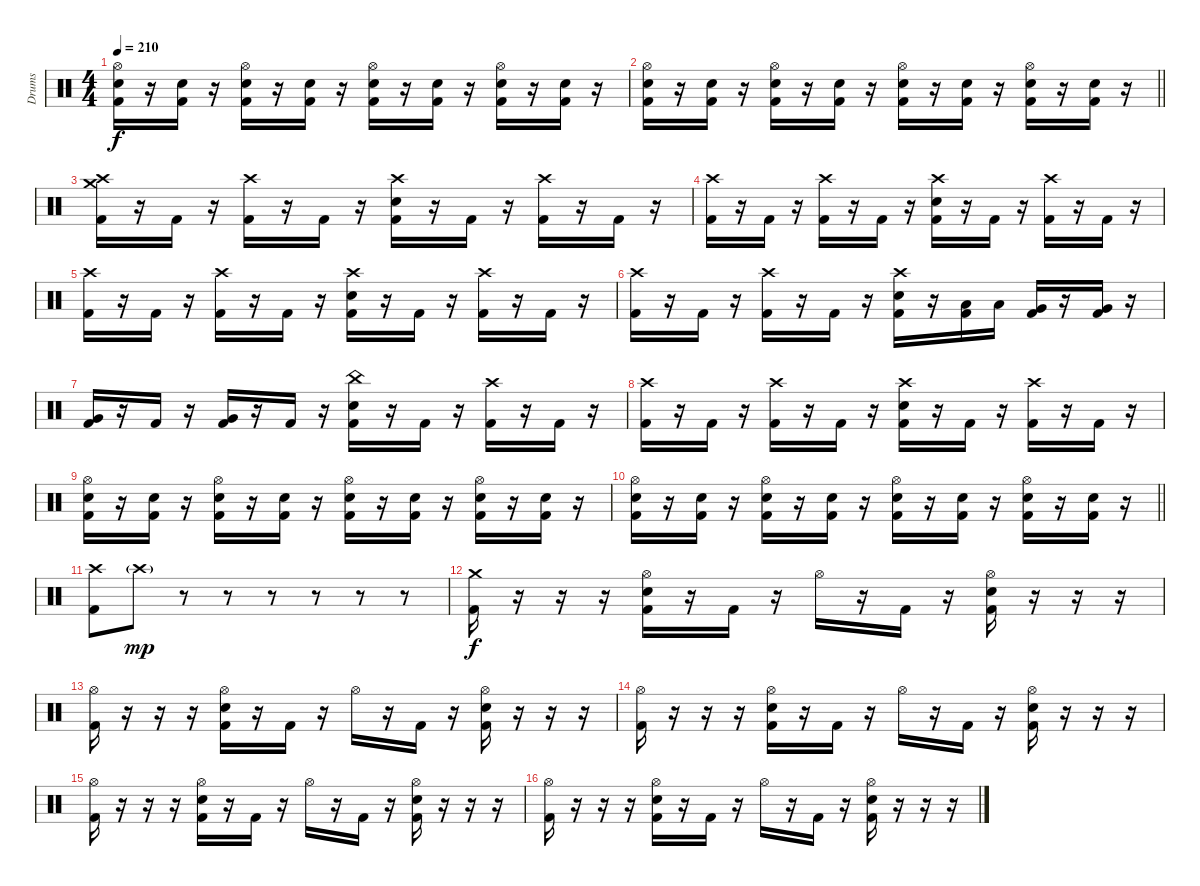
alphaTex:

\track ("Drums" "Drums") {instrument percussion}
\staff {score}
\articulation defaults
\ts (4 4)
\tempo 210
\clef neutral
\ks c
("Hi-Hat (open)" "Electric Snare (hit)" "Kick (hit) 2").16{dy f} r.16 ("Electric Snare (hit)" "Kick (hit) 2").16 r.16 ("Hi-Hat (open)" "Electric Snare (hit)" "Kick (hit) 2").16 r.16 ("Electric Snare (hit)" "Kick (hit) 2").16 r.16 ("Hi-Hat (open)" "Electric Snare (hit)" "Kick (hit) 2").16 r.16 ("Electric Snare (hit)" "Kick (hit) 2").16 r.16 ("Hi-Hat (open)" "Electric Snare (hit)" "Kick (hit) 2").16 r.16 ("Electric Snare (hit)" "Kick (hit) 2").16 r.16 |
\barLineRight lightlight
("Hi-Hat (open)" "Electric Snare (hit)" "Kick (hit) 2").16 r.16 ("Electric Snare (hit)" "Kick (hit) 2").16 r.16 ("Hi-Hat (open)" "Electric Snare (hit)" "Kick (hit) 2").16 r.16 ("Electric Snare (hit)" "Kick (hit) 2").16 r.16 ("Hi-Hat (open)" "Electric Snare (hit)" "Kick (hit) 2").16 r.16 ("Electric Snare (hit)" "Kick (hit) 2").16 r.16 ("Hi-Hat (open)" "Electric Snare (hit)" "Kick (hit) 2").16 r.16 ("Electric Snare (hit)" "Kick (hit) 2").16 r.16 |
("Crash high (hit)" "Crash medium (hit)" "Kick (hit) 2").16 r.16 "Kick (hit) 2".16 r.16 ("Crash high (hit)" "Kick (hit) 2").16 r.16 "Kick (hit) 2".16 r.16 ("Crash high (hit)" "Electric Snare (hit)" "Kick (hit) 2").16 r.16 "Kick (hit) 2".16 r.16 ("Crash high (hit)" "Kick (hit) 2").16 r.16 "Kick (hit) 2".16 r.16 |
("Crash high (hit)" "Kick (hit) 2").16 r.16 "Kick (hit) 2".16 r.16 ("Crash high (hit)" "Kick (hit) 2").16 r.16 "Kick (hit) 2".16 r.16 ("Crash high (hit)" "Electric Snare (hit)" "Kick (hit) 2").16 r.16 "Kick (hit) 2".16 r.16 ("Crash high (hit)" "Kick (hit) 2").16 r.16 "Kick (hit) 2".16 r.16 |
("Crash high (hit)" "Kick (hit) 2").16 r.16 "Kick (hit) 2".16 r.16 ("Crash high (hit)" "Kick (hit) 2").16 r.16 "Kick (hit) 2".16 r.16 ("Crash high (hit)" "Electric Snare (hit)" "Kick (hit) 2").16 r.16 "Kick (hit) 2".16 r.16 ("Crash high (hit)" "Kick (hit) 2").16 r.16 "Kick (hit) 2".16 r.16 |
("Crash high (hit)" "Kick (hit) 2").16 r.16 "Kick (hit) 2".16 r.16 ("Crash high (hit)" "Kick (hit) 2").16 r.16 "Kick (hit) 2".16 r.16 ("Crash high (hit)" "Electric Snare (hit)" "Kick (hit) 2").16 r.16 ("Low Tom (hit)" "Kick (hit) 2").16 "Low Tom (hit)".16 ("Very Low Tom (hit)" "Kick (hit) 2").16 r.16 ("Very Low Tom (hit)" "Kick (hit) 2").16 r.16 |
("Very Low Tom (hit)" "Kick (hit) 2").16 r.16 "Kick (hit) 2".16 r.16 ("Very Low Tom (hit)" "Kick (hit) 2").16 r.16 "Kick (hit) 2".16 r.16 ("China (hit)" "Electric Snare (hit)" "Kick (hit) 2").16 r.16 "Kick (hit) 2".16 r.16 ("Crash high (hit)" "Kick (hit) 2").16 r.16 "Kick (hit) 2".16 r.16 |
("Crash high (hit)" "Kick (hit) 2").16 r.16 "Kick (hit) 2".16 r.16 ("Crash high (hit)" "Kick (hit) 2").16 r.16 "Kick (hit) 2".16 r.16 ("Crash high (hit)" "Electric Snare (hit)" "Kick (hit) 2").16 r.16 "Kick (hit) 2".16 r.16 ("Crash high (hit)" "Kick (hit) 2").16 r.16 "Kick (hit) 2".16 r.16 |
("Hi-Hat (open)" "Electric Snare (hit)" "Kick (hit) 2").16 r.16 ("Electric Snare (hit)" "Kick (hit) 2").16 r.16 ("Hi-Hat (open)" "Electric Snare (hit)" "Kick (hit) 2").16 r.16 ("Electric Snare (hit)" "Kick (hit) 2").16 r.16 ("Hi-Hat (open)" "Electric Snare (hit)" "Kick (hit) 2").16 r.16 ("Electric Snare (hit)" "Kick (hit) 2").16 r.16 ("Hi-Hat (open)" "Electric Snare (hit)" "Kick (hit) 2").16 r.16 ("Electric Snare (hit)" "Kick (hit) 2").16 r.16 |
\barLineRight lightlight
("Hi-Hat (open)" "Electric Snare (hit)" "Kick (hit) 2").16 r.16 ("Electric Snare (hit)" "Kick (hit) 2").16 r.16 ("Hi-Hat (open)" "Electric Snare (hit)" "Kick (hit) 2").16 r.16 ("Electric Snare (hit)" "Kick (hit) 2").16 r.16 ("Hi-Hat (open)" "Electric Snare (hit)" "Kick (hit) 2").16 r.16 ("Electric Snare (hit)" "Kick (hit) 2").16 r.16 ("Hi-Hat (open)" "Electric Snare (hit)" "Kick (hit) 2").16 r.16 ("Electric Snare (hit)" "Kick (hit) 2").16 r.16 |
("Crash high (hit)" "Kick (hit) 2").8 "Crash high (hit)"{g}.8{dy mp volume 0} r.8 r.8 r.8 r.8 r.8 r.8 |
("Crash medium (hit)" "Kick (hit) 2").16{dy f volume 16} r.16 r.16 r.16 ("Hi-Hat (open)" "Electric Snare (hit)" "Kick (hit) 2").16 r.16 "Kick (hit) 2".16 r.16 "Hi-Hat (open)".16 r.16 "Kick (hit) 2".16 r.16 ("Hi-Hat (open)" "Electric Snare (hit)" "Kick (hit) 2").16 r.16 r.16 r.16 |
("Hi-Hat (open)" "Kick (hit) 2").16 r.16 r.16 r.16 ("Hi-Hat (open)" "Electric Snare (hit)" "Kick (hit) 2").16 r.16 "Kick (hit) 2".16 r.16 "Hi-Hat (open)".16 r.16 "Kick (hit) 2".16 r.16 ("Hi-Hat (open)" "Electric Snare (hit)" "Kick (hit) 2").16 r.16 r.16 r.16 |
("Hi-Hat (open)" "Kick (hit) 2").16 r.16 r.16 r.16 ("Hi-Hat (open)" "Electric Snare (hit)" "Kick (hit) 2").16 r.16 "Kick (hit) 2".16 r.16 "Hi-Hat (open)".16 r.16 "Kick (hit) 2".16 r.16 ("Hi-Hat (open)" "Electric Snare (hit)" "Kick (hit) 2").16 r.16 r.16 r.16 |
("Hi-Hat (open)" "Kick (hit) 2").16 r.16 r.16 r.16 ("Hi-Hat (open)" "Electric Snare (hit)" "Kick (hit) 2").16 r.16 "Kick (hit) 2".16 r.16 "Hi-Hat (open)".16 r.16 "Kick (hit) 2".16 r.16 ("Hi-Hat (open)" "Electric Snare (hit)" "Kick (hit) 2").16 r.16 r.16 r.16 |
("Hi-Hat (open)" "Kick (hit) 2").16 r.16 r.16 r.16 ("Hi-Hat (open)" "Electric Snare (hit)" "Kick (hit) 2").16 r.16 "Kick (hit) 2".16 r.16 "Hi-Hat (open)".16 r.16 "Kick (hit) 2".16 r.16 ("Hi-Hat (open)" "Electric Snare (hit)" "Kick (hit) 2").16 r.16 r.16 r.16
